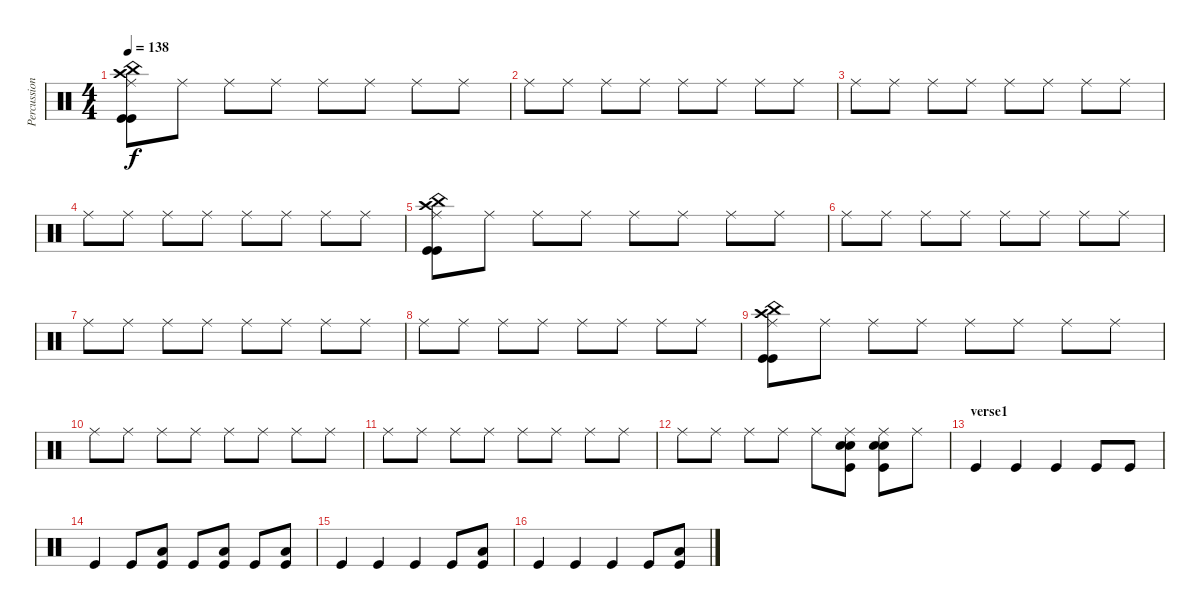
\track ("Percussion" "Percussion") {instrument percussion}
\staff {score}
\articulation defaults
\ts (4 4)
\section ("" "")
\tempo 138
\clef neutral
\ks c
("Ride (middle)" "Crash high (hit)" "China (hit)" "Kick (hit)" "Kick (hit)").8{dy f} "Ride (middle)".8 "Ride (middle)".8 "Ride (middle)".8 "Ride (middle)".8 "Ride (middle)".8 "Ride (middle)".8 "Ride (middle)".8 |
"Ride (middle)".8 "Ride (middle)".8 "Ride (middle)".8 "Ride (middle)".8 "Ride (middle)".8 "Ride (middle)".8 "Ride (middle)".8 "Ride (middle)".8 |
"Ride (middle)".8 "Ride (middle)".8 "Ride (middle)".8 "Ride (middle)".8 "Ride (middle)".8 "Ride (middle)".8 "Ride (middle)".8 "Ride (middle)".8 |
"Ride (middle)".8 "Ride (middle)".8 "Ride (middle)".8 "Ride (middle)".8 "Ride (middle)".8 "Ride (middle)".8 "Ride (middle)".8 "Ride (middle)".8 |
("Ride (middle)" "Crash high (hit)" "China (hit)" "Kick (hit)" "Kick (hit)").8 "Ride (middle)".8 "Ride (middle)".8 "Ride (middle)".8 "Ride (middle)".8 "Ride (middle)".8 "Ride (middle)".8 "Ride (middle)".8 |
"Ride (middle)".8 "Ride (middle)".8 "Ride (middle)".8 "Ride (middle)".8 "Ride (middle)".8 "Ride (middle)".8 "Ride (middle)".8 "Ride (middle)".8 |
"Ride (middle)".8 "Ride (middle)".8 "Ride (middle)".8 "Ride (middle)".8 "Ride (middle)".8 "Ride (middle)".8 "Ride (middle)".8 "Ride (middle)".8 |
"Ride (middle)".8 "Ride (middle)".8 "Ride (middle)".8 "Ride (middle)".8 "Ride (middle)".8 "Ride (middle)".8 "Ride (middle)".8 "Ride (middle)".8 |
("Ride (middle)" "Crash high (hit)" "China (hit)" "Kick (hit)" "Kick (hit)").8 "Ride (middle)".8 "Ride (middle)".8 "Ride (middle)".8 "Ride (middle)".8 "Ride (middle)".8 "Ride (middle)".8 "Ride (middle)".8 |
"Ride (middle)".8 "Ride (middle)".8 "Ride (middle)".8 "Ride (middle)".8 "Ride (middle)".8 "Ride (middle)".8 "Ride (middle)".8 "Ride (middle)".8 |
"Ride (middle)".8 "Ride (middle)".8 "Ride (middle)".8 "Ride (middle)".8 "Ride (middle)".8 "Ride (middle)".8 "Ride (middle)".8 "Ride (middle)".8 |
"Ride (middle)".8 "Ride (middle)".8 "Ride (middle)".8 "Ride (middle)".8 "Ride (middle)".8 ("Ride (middle)" "Snare (hit) 2" "Snare (hit) 2" "Kick (hit)").8 ("Ride (middle)" "Snare (hit) 2" "Snare (hit) 2" "Kick (hit)").8 "Ride (middle)".8 |
\section ("" "verse1")
"Kick (hit)".4 "Kick (hit)".4 "Kick (hit)".4 "Kick (hit)".8 "Kick (hit)".8 |
"Kick (hit)".4 "Kick (hit)".8 ("Low Tom (hit)" "Kick (hit)").8 "Kick (hit)".8 ("Low Tom (hit)" "Kick (hit)").8 "Kick (hit)".8 ("Low Tom (hit)" "Kick (hit)").8 |
"Kick (hit)".4 "Kick (hit)".4 "Kick (hit)".4 "Kick (hit)".8 ("Low Tom (hit)" "Kick (hit)").8 |
"Kick (hit)".4 "Kick (hit)".4 "Kick (hit)".4 "Kick (hit)".8 ("Low Tom (hit)" "Kick (hit)").8
